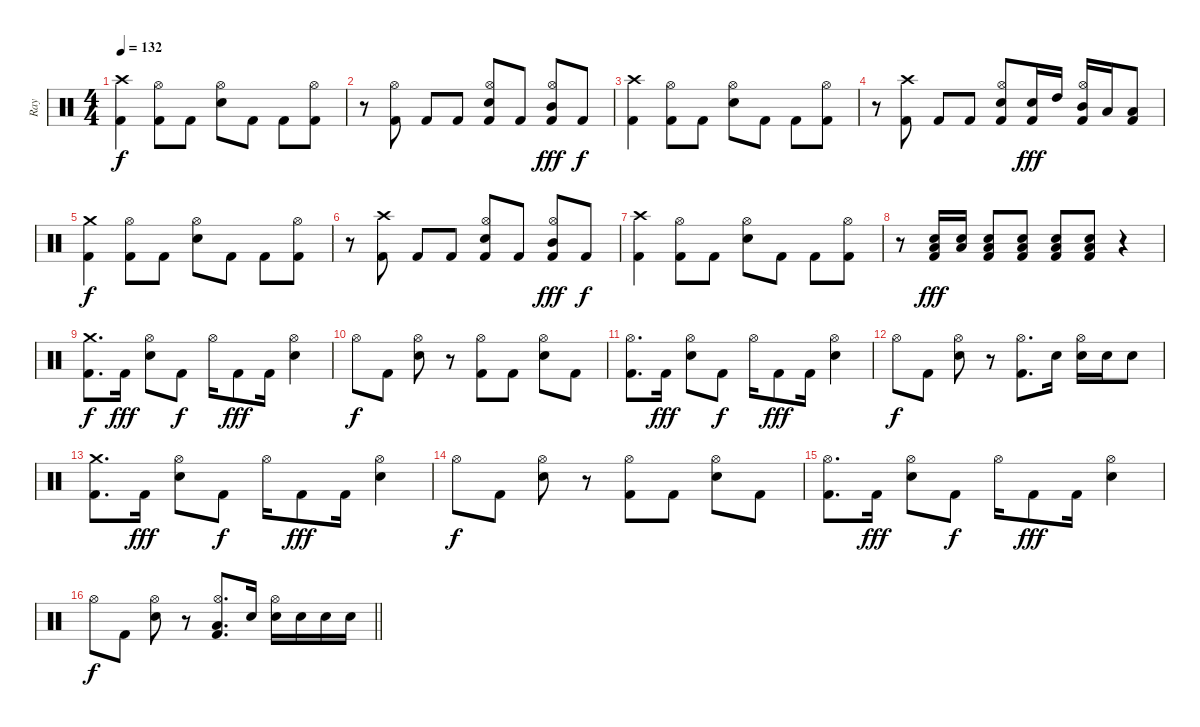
\track ("Ray" "Ray") {instrument percussion}
\staff {score}
\articulation defaults
\ts (4 4)
\tempo 132
\clef neutral
\ks c
("Crash high (hit)" "Kick (hit) 2").4{dy f} ("Hi-Hat (open)" "Kick (hit) 2").8 "Kick (hit) 2".8 ("Hi-Hat (open)" "Snare (hit) 2").8 "Kick (hit) 2".8 "Kick (hit) 2".8 ("Hi-Hat (open)" "Kick (hit) 2").8 |
r.8 ("Hi-Hat (open)" "Kick (hit) 2").8 "Kick (hit) 2".8 "Kick (hit) 2".8 ("Hi-Hat (open)" "Snare (hit) 2" "Kick (hit) 2").8 "Kick (hit) 2".8 ("Hi-Hat (open)" "Mid Tom (hit)" "Kick (hit) 2").8{dy fff} "Kick (hit) 2".8{dy f} |
("Crash high (hit)" "Kick (hit) 2").4 ("Hi-Hat (open)" "Kick (hit) 2").8 "Kick (hit) 2".8 ("Hi-Hat (open)" "Snare (hit) 2").8 "Kick (hit) 2".8 "Kick (hit) 2".8 ("Hi-Hat (open)" "Kick (hit) 2").8 |
r.8 ("Crash high (hit)" "Kick (hit) 2").8 "Kick (hit) 2".8 "Kick (hit) 2".8 ("Hi-Hat (open)" "Snare (hit) 2" "Kick (hit) 2").8 ("Snare (hit) 2" "Kick (hit) 2").16{dy fff} "High Tom (hit)".16 ("Hi-Hat (open)" "Mid Tom (hit)" "Kick (hit) 2").16 "Low Tom (hit)".16 ("Low Floor Tom (hit)" "Kick (hit) 2").8 |
("Crash medium (hit)" "Kick (hit) 2").4{dy f} ("Hi-Hat (open)" "Kick (hit) 2").8 "Kick (hit) 2".8 ("Hi-Hat (open)" "Snare (hit) 2").8 "Kick (hit) 2".8 "Kick (hit) 2".8 ("Hi-Hat (open)" "Kick (hit) 2").8 |
r.8 ("Crash high (hit)" "Kick (hit) 2").8 "Kick (hit) 2".8 "Kick (hit) 2".8 ("Hi-Hat (open)" "Snare (hit) 2" "Kick (hit) 2").8 "Kick (hit) 2".8 ("Hi-Hat (open)" "Mid Tom (hit)" "Kick (hit) 2").8{dy fff} "Kick (hit) 2".8{dy f} |
("Crash high (hit)" "Kick (hit) 2").4 ("Hi-Hat (open)" "Kick (hit) 2").8 "Kick (hit) 2".8 ("Hi-Hat (open)" "Snare (hit) 2").8 "Kick (hit) 2".8 "Kick (hit) 2".8 ("Hi-Hat (open)" "Kick (hit) 2").8 |
r.8 ("Snare (hit) 2" "Low Floor Tom (hit)" "Kick (hit) 2").16{dy fff} ("Snare (hit) 2" "Low Floor Tom (hit)").16 ("Snare (hit) 2" "Low Floor Tom (hit)" "Kick (hit) 2").8 ("Snare (hit) 2" "Low Floor Tom (hit)" "Kick (hit) 2").8 ("Snare (hit) 2" "Low Floor Tom (hit)" "Kick (hit) 2").8 ("Snare (hit) 2" "Low Floor Tom (hit)" "Kick (hit) 2").8 r.4 |
("Crash medium (hit)" "Kick (hit) 2").8{d dy f} "Kick (hit) 2".16{dy fff} ("Hi-Hat (open)" "Snare (hit) 2").8 "Kick (hit) 2".8{dy f} "Hi-Hat (open)".16 "Kick (hit) 2".8{dy fff} "Kick (hit) 2".16 ("Hi-Hat (open)" "Snare (hit) 2").4 |
"Hi-Hat (open)".8{dy f} "Kick (hit) 2".8 ("Hi-Hat (open)" "Snare (hit) 2").8 r.8 ("Hi-Hat (open)" "Kick (hit) 2").8 "Kick (hit) 2".8 ("Hi-Hat (open)" "Snare (hit) 2").8 "Kick (hit) 2".8 |
("Hi-Hat (open)" "Kick (hit) 2").8{d} "Kick (hit) 2".16{dy fff} ("Hi-Hat (open)" "Snare (hit) 2").8 "Kick (hit) 2".8{dy f} "Hi-Hat (open)".16 "Kick (hit) 2".8{dy fff} "Kick (hit) 2".16 ("Hi-Hat (open)" "Snare (hit) 2").4 |
"Hi-Hat (open)".8{dy f} "Kick (hit) 2".8 ("Hi-Hat (open)" "Snare (hit) 2").8 r.8 ("Hi-Hat (open)" "Kick (hit) 2").8{d} "Snare (hit) 2".16 ("Hi-Hat (open)" "Snare (hit) 2").16 "Snare (hit) 2".16 "Snare (hit) 2".8 |
("Crash medium (hit)" "Kick (hit) 2").8{d} "Kick (hit) 2".16{dy fff} ("Hi-Hat (open)" "Snare (hit) 2").8 "Kick (hit) 2".8{dy f} "Hi-Hat (open)".16 "Kick (hit) 2".8{dy fff} "Kick (hit) 2".16 ("Hi-Hat (open)" "Snare (hit) 2").4 |
"Hi-Hat (open)".8{dy f} "Kick (hit) 2".8 ("Hi-Hat (open)" "Snare (hit) 2").8 r.8 ("Hi-Hat (open)" "Kick (hit) 2").8 "Kick (hit) 2".8 ("Hi-Hat (open)" "Snare (hit) 2").8 "Kick (hit) 2".8 |
("Hi-Hat (open)" "Kick (hit) 2").8{d} "Kick (hit) 2".16{dy fff} ("Hi-Hat (open)" "Snare (hit) 2").8 "Kick (hit) 2".8{dy f} "Hi-Hat (open)".16 "Kick (hit) 2".8{dy fff} "Kick (hit) 2".16 ("Hi-Hat (open)" "Snare (hit) 2").4 |
\barLineRight lightlight "Hi-Hat (open)".8{dy f} "Kick (hit) 2".8
("Hi-Hat (open)" "Snare (hit) 2").8 r.8 ("Hi-Hat (open)" "Low Floor Tom (hit)" "Kick (hit) 2").8{d} "Snare (hit) 2".16 ("Hi-Hat (open)" "Snare (hit) 2").16 "Snare (hit) 2".16 "Snare (hit) 2".16 "Snare (hit) 2".16
